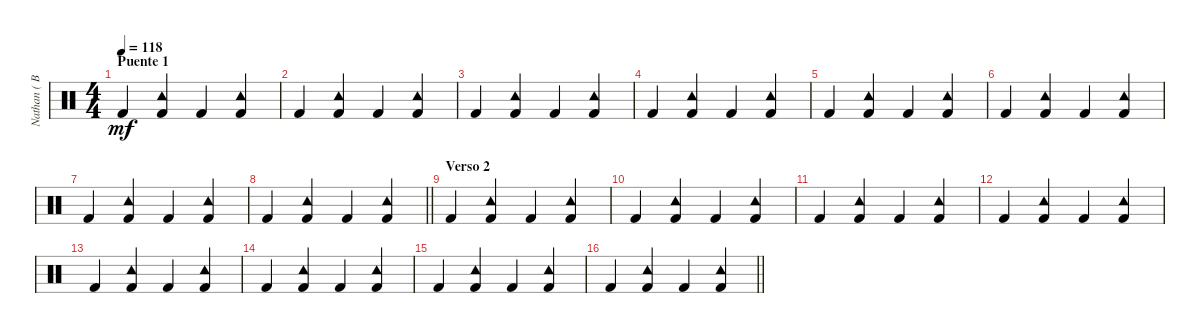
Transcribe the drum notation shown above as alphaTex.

\track ("Nathan ( Bateria )" "Nathan ( B") {instrument percussion}
\staff {score}
\articulation defaults
\ts (4 4)
\section ("" "Puente 1")
\tempo 118
\clef neutral
\ks c "Kick (hit) 2".4{dy mf}
("Tambourine (hit)" "Kick (hit) 2").4 "Kick (hit) 2".4 ("Tambourine (hit)" "Kick (hit) 2").4 |
"Kick (hit) 2".4 ("Tambourine (hit)" "Kick (hit) 2").4 "Kick (hit) 2".4 ("Tambourine (hit)" "Kick (hit) 2").4 |
"Kick (hit) 2".4 ("Tambourine (hit)" "Kick (hit) 2").4 "Kick (hit) 2".4 ("Tambourine (hit)" "Kick (hit) 2").4 |
"Kick (hit) 2".4 ("Tambourine (hit)" "Kick (hit) 2").4 "Kick (hit) 2".4 ("Tambourine (hit)" "Kick (hit) 2").4 |
"Kick (hit) 2".4 ("Tambourine (hit)" "Kick (hit) 2").4 "Kick (hit) 2".4 ("Tambourine (hit)" "Kick (hit) 2").4 |
"Kick (hit) 2".4 ("Tambourine (hit)" "Kick (hit) 2").4 "Kick (hit) 2".4 ("Tambourine (hit)" "Kick (hit) 2").4 |
"Kick (hit) 2".4 ("Tambourine (hit)" "Kick (hit) 2").4 "Kick (hit) 2".4 ("Tambourine (hit)" "Kick (hit) 2").4 |
\barLineRight lightlight "Kick (hit) 2".4
("Tambourine (hit)" "Kick (hit) 2").4 "Kick (hit) 2".4 ("Tambourine (hit)" "Kick (hit) 2").4 |
\section ("" "Verso 2")
"Kick (hit) 2".4 ("Tambourine (hit)" "Kick (hit) 2").4 "Kick (hit) 2".4 ("Tambourine (hit)" "Kick (hit) 2").4 |
"Kick (hit) 2".4 ("Tambourine (hit)" "Kick (hit) 2").4 "Kick (hit) 2".4 ("Tambourine (hit)" "Kick (hit) 2").4 |
"Kick (hit) 2".4 ("Tambourine (hit)" "Kick (hit) 2").4 "Kick (hit) 2".4 ("Tambourine (hit)" "Kick (hit) 2").4 |
"Kick (hit) 2".4 ("Tambourine (hit)" "Kick (hit) 2").4 "Kick (hit) 2".4 ("Tambourine (hit)" "Kick (hit) 2").4 |
"Kick (hit) 2".4 ("Tambourine (hit)" "Kick (hit) 2").4 "Kick (hit) 2".4 ("Tambourine (hit)" "Kick (hit) 2").4 |
"Kick (hit) 2".4 ("Tambourine (hit)" "Kick (hit) 2").4 "Kick (hit) 2".4 ("Tambourine (hit)" "Kick (hit) 2").4 |
"Kick (hit) 2".4 ("Tambourine (hit)" "Kick (hit) 2").4 "Kick (hit) 2".4 ("Tambourine (hit)" "Kick (hit) 2").4 |
\barLineRight lightlight "Kick (hit) 2".4
("Tambourine (hit)" "Kick (hit) 2").4 "Kick (hit) 2".4 ("Tambourine (hit)" "Kick (hit) 2").4
